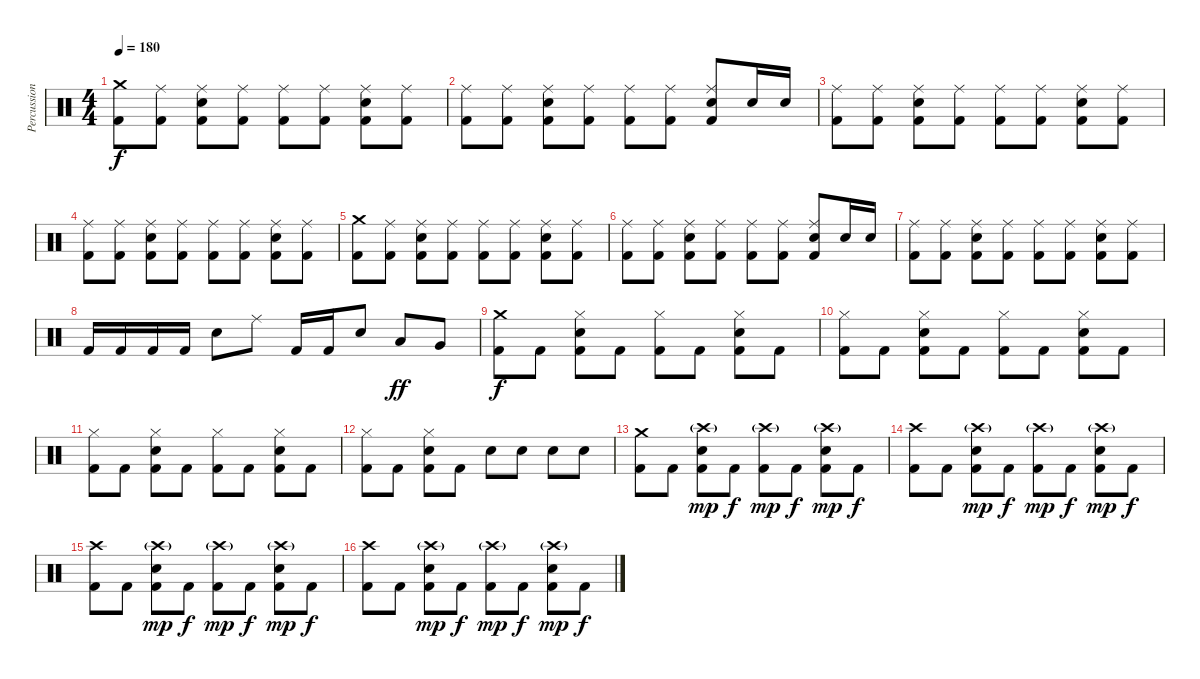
\track ("Percussioni" "Percussion") {instrument percussion}
\staff {score}
\articulation defaults
\ts (4 4)
\tempo 180
\clef neutral
\ks c
("Crash medium (hit)" "Kick (hit) 2").8{dy f} ("Ride (middle)" "Kick (hit) 2").8 ("Ride (middle)" "Electric Snare (hit)" "Kick (hit) 2").8 ("Ride (middle)" "Kick (hit) 2").8 ("Ride (middle)" "Kick (hit) 2").8 ("Ride (middle)" "Kick (hit) 2").8 ("Ride (middle)" "Electric Snare (hit)" "Kick (hit) 2").8 ("Ride (middle)" "Kick (hit) 2").8 |
("Ride (middle)" "Kick (hit) 2").8 ("Ride (middle)" "Kick (hit) 2").8 ("Ride (middle)" "Electric Snare (hit)" "Kick (hit) 2").8 ("Ride (middle)" "Kick (hit) 2").8 ("Ride (middle)" "Kick (hit) 2").8 ("Ride (middle)" "Kick (hit) 2").8 ("Ride (middle)" "Electric Snare (hit)" "Kick (hit) 2").8 "Electric Snare (hit)".16 "Electric Snare (hit)".16 |
("Ride (middle)" "Kick (hit) 2").8 ("Ride (middle)" "Kick (hit) 2").8 ("Ride (middle)" "Electric Snare (hit)" "Kick (hit) 2").8 ("Ride (middle)" "Kick (hit) 2").8 ("Ride (middle)" "Kick (hit) 2").8 ("Ride (middle)" "Kick (hit) 2").8 ("Ride (middle)" "Electric Snare (hit)" "Kick (hit) 2").8 ("Ride (middle)" "Kick (hit) 2").8 |
("Ride (middle)" "Kick (hit) 2").8 ("Ride (middle)" "Kick (hit) 2").8 ("Ride (middle)" "Electric Snare (hit)" "Kick (hit) 2").8 ("Ride (middle)" "Kick (hit) 2").8 ("Ride (middle)" "Kick (hit) 2").8 ("Ride (middle)" "Kick (hit) 2").8 ("Ride (middle)" "Electric Snare (hit)" "Kick (hit) 2").8 ("Ride (middle)" "Kick (hit) 2").8 |
("Crash medium (hit)" "Kick (hit) 2").8 ("Ride (middle)" "Kick (hit) 2").8 ("Ride (middle)" "Electric Snare (hit)" "Kick (hit) 2").8 ("Ride (middle)" "Kick (hit) 2").8 ("Ride (middle)" "Kick (hit) 2").8 ("Ride (middle)" "Kick (hit) 2").8 ("Ride (middle)" "Electric Snare (hit)" "Kick (hit) 2").8 ("Ride (middle)" "Kick (hit) 2").8 |
("Ride (middle)" "Kick (hit) 2").8 ("Ride (middle)" "Kick (hit) 2").8 ("Ride (middle)" "Electric Snare (hit)" "Kick (hit) 2").8 ("Ride (middle)" "Kick (hit) 2").8 ("Ride (middle)" "Kick (hit) 2").8 ("Ride (middle)" "Kick (hit) 2").8 ("Ride (middle)" "Electric Snare (hit)" "Kick (hit) 2").8 "Electric Snare (hit)".16 "Electric Snare (hit)".16 |
("Ride (middle)" "Kick (hit) 2").8 ("Ride (middle)" "Kick (hit) 2").8 ("Ride (middle)" "Electric Snare (hit)" "Kick (hit) 2").8 ("Ride (middle)" "Kick (hit) 2").8 ("Ride (middle)" "Kick (hit) 2").8 ("Ride (middle)" "Kick (hit) 2").8 ("Ride (middle)" "Electric Snare (hit)" "Kick (hit) 2").8 ("Ride (middle)" "Kick (hit) 2").8 |
"Kick (hit) 2".16 "Kick (hit) 2".16 "Kick (hit) 2".16 "Kick (hit) 2".16 "Electric Snare (hit)".8 "Ride (middle)".8 "Kick (hit) 2".16 "Kick (hit) 2".16 "Electric Snare (hit)".8 "Low Tom (hit)".8{dy ff} "Very Low Tom (hit)".8 |
("Crash medium (hit)" "Kick (hit) 2").8{dy f} "Kick (hit) 2".8 ("Hi-Hat (closed)" "Electric Snare (hit)" "Kick (hit) 2").8 "Kick (hit) 2".8 ("Hi-Hat (closed)" "Kick (hit) 2").8 "Kick (hit) 2".8 ("Hi-Hat (closed)" "Electric Snare (hit)" "Kick (hit) 2").8 "Kick (hit) 2".8 |
("Hi-Hat (closed)" "Kick (hit) 2").8 "Kick (hit) 2".8 ("Hi-Hat (closed)" "Electric Snare (hit)" "Kick (hit) 2").8 "Kick (hit) 2".8 ("Hi-Hat (closed)" "Kick (hit) 2").8 "Kick (hit) 2".8 ("Hi-Hat (closed)" "Electric Snare (hit)" "Kick (hit) 2").8 "Kick (hit) 2".8 |
("Hi-Hat (closed)" "Kick (hit) 2").8 "Kick (hit) 2".8 ("Hi-Hat (closed)" "Electric Snare (hit)" "Kick (hit) 2").8 "Kick (hit) 2".8 ("Hi-Hat (closed)" "Kick (hit) 2").8 "Kick (hit) 2".8 ("Hi-Hat (closed)" "Electric Snare (hit)" "Kick (hit) 2").8 "Kick (hit) 2".8 |
("Hi-Hat (closed)" "Kick (hit) 2").8 "Kick (hit) 2".8 ("Hi-Hat (closed)" "Electric Snare (hit)" "Kick (hit) 2").8 "Kick (hit) 2".8 "Electric Snare (hit)".8 "Electric Snare (hit)".8 "Electric Snare (hit)".8 "Electric Snare (hit)".8 |
("Crash medium (hit)" "Kick (hit) 2").8 "Kick (hit) 2".8 ("Crash high (hit)"{g} "Electric Snare (hit)" "Kick (hit) 2").8{dy mp} "Kick (hit) 2".8{dy f} ("Crash high (hit)"{g} "Kick (hit) 2").8{dy mp} "Kick (hit) 2".8{dy f} ("Crash high (hit)"{g} "Electric Snare (hit)" "Kick (hit) 2").8{dy mp} "Kick (hit) 2".8{dy f} |
("Crash high (hit)" "Kick (hit) 2").8 "Kick (hit) 2".8 ("Crash high (hit)"{g} "Electric Snare (hit)" "Kick (hit) 2").8{dy mp} "Kick (hit) 2".8{dy f} ("Crash high (hit)"{g} "Kick (hit) 2").8{dy mp} "Kick (hit) 2".8{dy f} ("Crash high (hit)"{g} "Electric Snare (hit)" "Kick (hit) 2").8{dy mp} "Kick (hit) 2".8{dy f} |
("Crash high (hit)" "Kick (hit) 2").8 "Kick (hit) 2".8 ("Crash high (hit)"{g} "Electric Snare (hit)" "Kick (hit) 2").8{dy mp} "Kick (hit) 2".8{dy f} ("Crash high (hit)"{g} "Kick (hit) 2").8{dy mp} "Kick (hit) 2".8{dy f} ("Crash high (hit)"{g} "Electric Snare (hit)" "Kick (hit) 2").8{dy mp} "Kick (hit) 2".8{dy f} |
("Crash high (hit)" "Kick (hit) 2").8 "Kick (hit) 2".8 ("Crash high (hit)"{g} "Electric Snare (hit)" "Kick (hit) 2").8{dy mp} "Kick (hit) 2".8{dy f} ("Crash high (hit)"{g} "Kick (hit) 2").8{dy mp} "Kick (hit) 2".8{dy f} ("Crash high (hit)"{g} "Electric Snare (hit)" "Kick (hit) 2").8{dy mp} "Kick (hit) 2".8{dy f}
